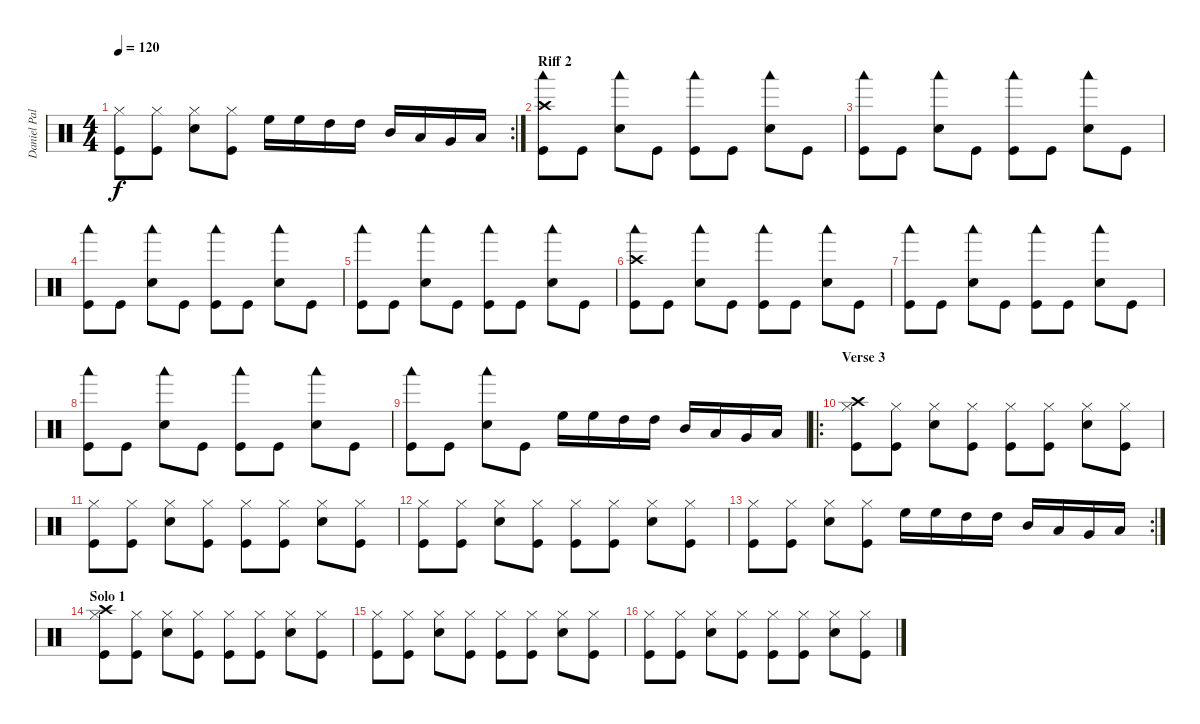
\track ("Daniel Pal" "Daniel Pal") {instrument percussion}
\staff {score}
\articulation defaults
\rc 2
\ts (4 4)
\tempo 120
\clef neutral
\ks c
("Hi-Hat (closed)" "Kick (hit)").8{dy f} ("Hi-Hat (closed)" "Kick (hit)").8 ("Hi-Hat (closed)" "Electric Snare (hit)").8 ("Hi-Hat (closed)" "Kick (hit)").8 "High Floor Tom (hit)".16 "High Floor Tom (hit)".16 "High Tom (hit)".16 "High Tom (hit)".16 "Mid Tom (hit)".16 "Low Tom (hit)".16 "Very Low Tom (hit)".16 "Low Floor Tom (hit)".16 |
\section ("" "Riff 2")
("Crash high (hit)" "Woodblock low (hit)" "Kick (hit)").8 "Kick (hit)".8 ("Woodblock low (hit)" "Electric Snare (hit)").8 "Kick (hit)".8 ("Woodblock low (hit)" "Kick (hit)").8 "Kick (hit)".8 ("Woodblock low (hit)" "Electric Snare (hit)").8 "Kick (hit)".8 |
("Woodblock low (hit)" "Kick (hit)").8 "Kick (hit)".8 ("Woodblock low (hit)" "Electric Snare (hit)").8 "Kick (hit)".8 ("Woodblock low (hit)" "Kick (hit)").8 "Kick (hit)".8 ("Woodblock low (hit)" "Electric Snare (hit)").8 "Kick (hit)".8 |
("Woodblock low (hit)" "Kick (hit)").8 "Kick (hit)".8 ("Woodblock low (hit)" "Electric Snare (hit)").8 "Kick (hit)".8 ("Woodblock low (hit)" "Kick (hit)").8 "Kick (hit)".8 ("Woodblock low (hit)" "Electric Snare (hit)").8 "Kick (hit)".8 |
("Woodblock low (hit)" "Kick (hit)").8 "Kick (hit)".8 ("Woodblock low (hit)" "Electric Snare (hit)").8 "Kick (hit)".8 ("Woodblock low (hit)" "Kick (hit)").8 "Kick (hit)".8 ("Woodblock low (hit)" "Electric Snare (hit)").8 "Kick (hit)".8 |
("Crash high (hit)" "Woodblock low (hit)" "Kick (hit)").8 "Kick (hit)".8 ("Woodblock low (hit)" "Electric Snare (hit)").8 "Kick (hit)".8 ("Woodblock low (hit)" "Kick (hit)").8 "Kick (hit)".8 ("Woodblock low (hit)" "Electric Snare (hit)").8 "Kick (hit)".8 |
("Woodblock low (hit)" "Kick (hit)").8 "Kick (hit)".8 ("Woodblock low (hit)" "Electric Snare (hit)").8 "Kick (hit)".8 ("Woodblock low (hit)" "Kick (hit)").8 "Kick (hit)".8 ("Woodblock low (hit)" "Electric Snare (hit)").8 "Kick (hit)".8 |
("Woodblock low (hit)" "Kick (hit)").8 "Kick (hit)".8 ("Woodblock low (hit)" "Electric Snare (hit)").8 "Kick (hit)".8 ("Woodblock low (hit)" "Kick (hit)").8 "Kick (hit)".8 ("Woodblock low (hit)" "Electric Snare (hit)").8 "Kick (hit)".8 |
("Woodblock low (hit)" "Kick (hit)").8 "Kick (hit)".8 ("Woodblock low (hit)" "Electric Snare (hit)").8 "Kick (hit)".8 "High Floor Tom (hit)".16 "High Floor Tom (hit)".16 "High Tom (hit)".16 "High Tom (hit)".16 "Mid Tom (hit)".16 "Low Tom (hit)".16 "Very Low Tom (hit)".16 "Low Floor Tom (hit)".16 |
\ro
\section ("" "Verse 3")
("Crash high (hit)" "Hi-Hat (closed)" "Kick (hit)").8 ("Hi-Hat (closed)" "Kick (hit)").8 ("Hi-Hat (closed)" "Electric Snare (hit)").8 ("Hi-Hat (closed)" "Kick (hit)").8 ("Hi-Hat (closed)" "Kick (hit)").8 ("Hi-Hat (closed)" "Kick (hit)").8 ("Hi-Hat (closed)" "Electric Snare (hit)").8 ("Hi-Hat (closed)" "Kick (hit)").8 |
("Hi-Hat (closed)" "Kick (hit)").8 ("Hi-Hat (closed)" "Kick (hit)").8 ("Hi-Hat (closed)" "Electric Snare (hit)").8 ("Hi-Hat (closed)" "Kick (hit)").8 ("Hi-Hat (closed)" "Kick (hit)").8 ("Hi-Hat (closed)" "Kick (hit)").8 ("Hi-Hat (closed)" "Electric Snare (hit)").8 ("Hi-Hat (closed)" "Kick (hit)").8 |
("Hi-Hat (closed)" "Kick (hit)").8 ("Hi-Hat (closed)" "Kick (hit)").8 ("Hi-Hat (closed)" "Electric Snare (hit)").8 ("Hi-Hat (closed)" "Kick (hit)").8 ("Hi-Hat (closed)" "Kick (hit)").8 ("Hi-Hat (closed)" "Kick (hit)").8 ("Hi-Hat (closed)" "Electric Snare (hit)").8 ("Hi-Hat (closed)" "Kick (hit)").8 |
\rc 2
("Hi-Hat (closed)" "Kick (hit)").8 ("Hi-Hat (closed)" "Kick (hit)").8 ("Hi-Hat (closed)" "Electric Snare (hit)").8 ("Hi-Hat (closed)" "Kick (hit)").8 "High Floor Tom (hit)".16 "High Floor Tom (hit)".16 "High Tom (hit)".16 "High Tom (hit)".16 "Mid Tom (hit)".16 "Low Tom (hit)".16 "Very Low Tom (hit)".16 "Low Floor Tom (hit)".16 |
\section ("" "Solo 1")
("Crash high (hit)" "Hi-Hat (closed)" "Kick (hit)").8 ("Hi-Hat (closed)" "Kick (hit)").8 ("Hi-Hat (closed)" "Electric Snare (hit)").8 ("Hi-Hat (closed)" "Kick (hit)").8 ("Hi-Hat (closed)" "Kick (hit)").8 ("Hi-Hat (closed)" "Kick (hit)").8 ("Hi-Hat (closed)" "Electric Snare (hit)").8 ("Hi-Hat (closed)" "Kick (hit)").8 |
("Hi-Hat (closed)" "Kick (hit)").8 ("Hi-Hat (closed)" "Kick (hit)").8 ("Hi-Hat (closed)" "Electric Snare (hit)").8 ("Hi-Hat (closed)" "Kick (hit)").8 ("Hi-Hat (closed)" "Kick (hit)").8 ("Hi-Hat (closed)" "Kick (hit)").8 ("Hi-Hat (closed)" "Electric Snare (hit)").8 ("Hi-Hat (closed)" "Kick (hit)").8 |
("Hi-Hat (closed)" "Kick (hit)").8 ("Hi-Hat (closed)" "Kick (hit)").8 ("Hi-Hat (closed)" "Electric Snare (hit)").8 ("Hi-Hat (closed)" "Kick (hit)").8 ("Hi-Hat (closed)" "Kick (hit)").8 ("Hi-Hat (closed)" "Kick (hit)").8 ("Hi-Hat (closed)" "Electric Snare (hit)").8 ("Hi-Hat (closed)" "Kick (hit)").8
